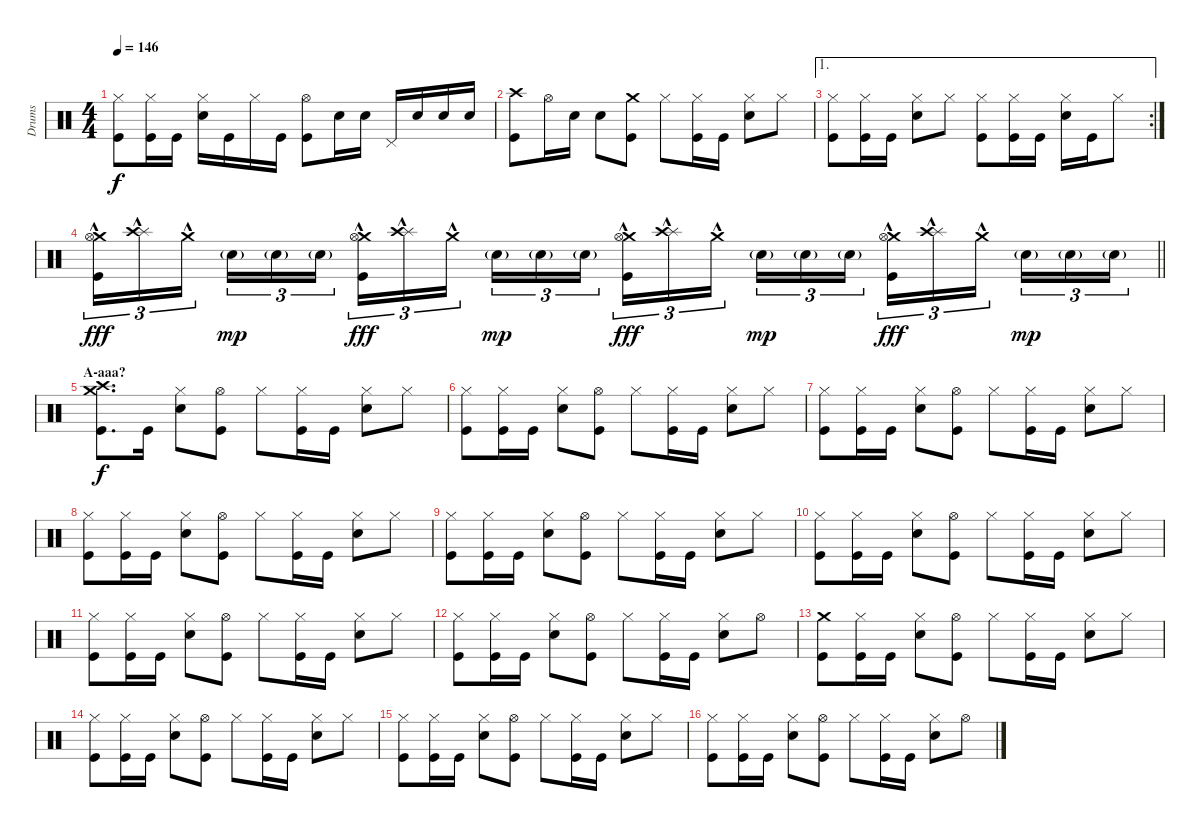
\track ("Drums" "Drums") {instrument percussion}
\staff {score}
\articulation defaults
\ts (4 4)
\tempo 146
\clef neutral
\ks c
("Hi-Hat (closed)" "Kick (hit)").8{dy f} ("Hi-Hat (closed)" "Kick (hit)").16 "Kick (hit)".16 ("Hi-Hat (closed)" "Electric Snare (hit)").16 "Kick (hit)".16 "Hi-Hat (closed)".16 "Kick (hit)".16 ("Hi-Hat (open)" "Kick (hit)").8 "Electric Snare (hit)".16 "Electric Snare (hit)".16 "Pedal Hi-Hat (hit)".16 "Electric Snare (hit)".16 "Electric Snare (hit)".16 "Electric Snare (hit)".16 |
("Crash high (hit)" "Kick (hit)").8 "Hi-Hat (open)".16 "Electric Snare (hit)".16 "Electric Snare (hit)".8 ("Crash medium (hit)" "Kick (hit)").8 "Hi-Hat (closed)".8 ("Hi-Hat (closed)" "Kick (hit)").16 "Kick (hit)".16 ("Hi-Hat (closed)" "Electric Snare (hit)").8 "Hi-Hat (closed)".8 |
\ae 1
\rc 2
("Hi-Hat (closed)" "Kick (hit)").8 ("Hi-Hat (closed)" "Kick (hit)").16 "Kick (hit)".16 ("Hi-Hat (closed)" "Electric Snare (hit)").8 "Hi-Hat (closed)".8 ("Hi-Hat (closed)" "Kick (hit)").8 ("Hi-Hat (closed)" "Kick (hit)").16 "Kick (hit)".16 ("Hi-Hat (closed)" "Electric Snare (hit)").16 "Kick (hit)".16 "Hi-Hat (closed)".8 |
\barLineRight lightlight
("Crash medium (hit)"{hac} "Hi-Hat (open)"{hac} "Kick (hit)"{hac}).16{tu (3 2) dy fff} ("Splash (hit)"{hac} "Crash high (hit)"{hac}).16{tu (3 2)} "Crash medium (hit)"{hac}.16{tu (3 2) beam splitsecondary} "Electric Snare (hit)"{g}.16{tu (3 2) dy mp} "Electric Snare (hit)"{g}.16{tu (3 2)} "Electric Snare (hit)"{g}.16{tu (3 2)} ("Crash medium (hit)"{hac} "Hi-Hat (open)"{hac} "Kick (hit)"{hac}).16{tu (3 2) dy fff} ("Splash (hit)"{hac} "Crash high (hit)"{hac}).16{tu (3 2)} "Crash medium (hit)"{hac}.16{tu (3 2) beam splitsecondary} "Electric Snare (hit)"{g}.16{tu (3 2) dy mp} "Electric Snare (hit)"{g}.16{tu (3 2)} "Electric Snare (hit)"{g}.16{tu (3 2)} ("Crash medium (hit)"{hac} "Hi-Hat (open)"{hac} "Kick (hit)"{hac}).16{tu (3 2) dy fff} ("Splash (hit)"{hac} "Crash high (hit)"{hac}).16{tu (3 2)} "Crash medium (hit)"{hac}.16{tu (3 2) beam splitsecondary} "Electric Snare (hit)"{g}.16{tu (3 2) dy mp} "Electric Snare (hit)"{g}.16{tu (3 2)} "Electric Snare (hit)"{g}.16{tu (3 2)} ("Crash medium (hit)"{hac} "Hi-Hat (open)"{hac} "Kick (hit)"{hac}).16{tu (3 2) dy fff} ("Splash (hit)"{hac} "Crash high (hit)"{hac}).16{tu (3 2)} "Crash medium (hit)"{hac}.16{tu (3 2) beam splitsecondary} "Electric Snare (hit)"{g}.16{tu (3 2) dy mp} "Electric Snare (hit)"{g}.16{tu (3 2)} "Electric Snare (hit)"{g}.16{tu (3 2)} |
\section ("" "A-aaa?")
("Crash medium (hit)" "Crash high (hit)" "Kick (hit)").8{d dy f} "Kick (hit)".16 ("Hi-Hat (closed)" "Electric Snare (hit)").8 ("Hi-Hat (open)" "Kick (hit)").8 "Hi-Hat (closed)".8 ("Hi-Hat (closed)" "Kick (hit)").16 "Kick (hit)".16 ("Hi-Hat (closed)" "Electric Snare (hit)").8 "Hi-Hat (closed)".8 |
("Hi-Hat (closed)" "Kick (hit)").8 ("Hi-Hat (closed)" "Kick (hit)").16 "Kick (hit)".16 ("Hi-Hat (closed)" "Electric Snare (hit)").8 ("Hi-Hat (open)" "Kick (hit)").8 "Hi-Hat (closed)".8 ("Hi-Hat (closed)" "Kick (hit)").16 "Kick (hit)".16 ("Hi-Hat (closed)" "Electric Snare (hit)").8 "Hi-Hat (closed)".8 |
("Hi-Hat (closed)" "Kick (hit)").8 ("Hi-Hat (closed)" "Kick (hit)").16 "Kick (hit)".16 ("Hi-Hat (closed)" "Electric Snare (hit)").8 ("Hi-Hat (open)" "Kick (hit)").8 "Hi-Hat (closed)".8 ("Hi-Hat (closed)" "Kick (hit)").16 "Kick (hit)".16 ("Hi-Hat (closed)" "Electric Snare (hit)").8 "Hi-Hat (closed)".8 |
("Hi-Hat (closed)" "Kick (hit)").8 ("Hi-Hat (closed)" "Kick (hit)").16 "Kick (hit)".16 ("Hi-Hat (closed)" "Electric Snare (hit)").8 ("Hi-Hat (open)" "Kick (hit)").8 "Hi-Hat (closed)".8 ("Hi-Hat (closed)" "Kick (hit)").16 "Kick (hit)".16 ("Hi-Hat (closed)" "Electric Snare (hit)").8 "Hi-Hat (closed)".8 |
("Hi-Hat (closed)" "Kick (hit)").8 ("Hi-Hat (closed)" "Kick (hit)").16 "Kick (hit)".16 ("Hi-Hat (closed)" "Electric Snare (hit)").8 ("Hi-Hat (open)" "Kick (hit)").8 "Hi-Hat (closed)".8 ("Hi-Hat (closed)" "Kick (hit)").16 "Kick (hit)".16 ("Hi-Hat (closed)" "Electric Snare (hit)").8 "Hi-Hat (closed)".8 |
("Hi-Hat (closed)" "Kick (hit)").8 ("Hi-Hat (closed)" "Kick (hit)").16 "Kick (hit)".16 ("Hi-Hat (closed)" "Electric Snare (hit)").8 ("Hi-Hat (open)" "Kick (hit)").8 "Hi-Hat (closed)".8 ("Hi-Hat (closed)" "Kick (hit)").16 "Kick (hit)".16 ("Hi-Hat (closed)" "Electric Snare (hit)").8 "Hi-Hat (closed)".8 |
("Hi-Hat (closed)" "Kick (hit)").8 ("Hi-Hat (closed)" "Kick (hit)").16 "Kick (hit)".16 ("Hi-Hat (closed)" "Electric Snare (hit)").8 ("Hi-Hat (open)" "Kick (hit)").8 "Hi-Hat (closed)".8 ("Hi-Hat (closed)" "Kick (hit)").16 "Kick (hit)".16 ("Hi-Hat (closed)" "Electric Snare (hit)").8 "Hi-Hat (closed)".8 |
("Hi-Hat (closed)" "Kick (hit)").8 ("Hi-Hat (closed)" "Kick (hit)").16 "Kick (hit)".16 ("Hi-Hat (closed)" "Electric Snare (hit)").8 ("Hi-Hat (open)" "Kick (hit)").8 "Hi-Hat (closed)".8 ("Hi-Hat (closed)" "Kick (hit)").16 "Kick (hit)".16 ("Hi-Hat (closed)" "Electric Snare (hit)").8 "Hi-Hat (open)".8 |
("Crash medium (hit)" "Kick (hit)").8 ("Hi-Hat (closed)" "Kick (hit)").16 "Kick (hit)".16 ("Hi-Hat (closed)" "Electric Snare (hit)").8 ("Hi-Hat (open)" "Kick (hit)").8 "Hi-Hat (closed)".8 ("Hi-Hat (closed)" "Kick (hit)").16 "Kick (hit)".16 ("Hi-Hat (closed)" "Electric Snare (hit)").8 "Hi-Hat (closed)".8 |
("Hi-Hat (closed)" "Kick (hit)").8 ("Hi-Hat (closed)" "Kick (hit)").16 "Kick (hit)".16 ("Hi-Hat (closed)" "Electric Snare (hit)").8 ("Hi-Hat (open)" "Kick (hit)").8 "Hi-Hat (closed)".8 ("Hi-Hat (closed)" "Kick (hit)").16 "Kick (hit)".16 ("Hi-Hat (closed)" "Electric Snare (hit)").8 "Hi-Hat (closed)".8 |
("Hi-Hat (closed)" "Kick (hit)").8 ("Hi-Hat (closed)" "Kick (hit)").16 "Kick (hit)".16 ("Hi-Hat (closed)" "Electric Snare (hit)").8 ("Hi-Hat (open)" "Kick (hit)").8 "Hi-Hat (closed)".8 ("Hi-Hat (closed)" "Kick (hit)").16 "Kick (hit)".16 ("Hi-Hat (closed)" "Electric Snare (hit)").8 "Hi-Hat (closed)".8 |
("Hi-Hat (closed)" "Kick (hit)").8 ("Hi-Hat (closed)" "Kick (hit)").16 "Kick (hit)".16 ("Hi-Hat (closed)" "Electric Snare (hit)").8 ("Hi-Hat (open)" "Kick (hit)").8 "Hi-Hat (closed)".8 ("Hi-Hat (closed)" "Kick (hit)").16 "Kick (hit)".16 ("Hi-Hat (closed)" "Electric Snare (hit)").8 "Hi-Hat (open)".8
